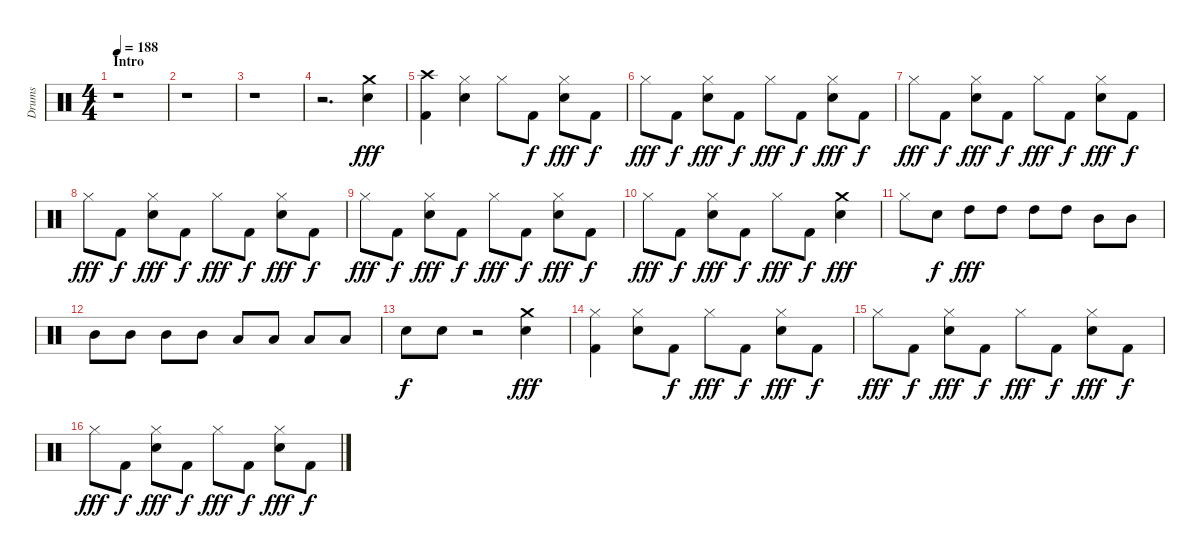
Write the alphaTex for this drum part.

\track ("Drums" "Drums") {instrument percussion}
\staff {score}
\articulation defaults
\ts (4 4)
\section ("" "Intro")
\tempo 188
\clef neutral
\ks c
r.1{dy fff} |
r.1 |
r.1 |
r.2{d} ("Crash medium (hit)" "Snare (hit) 2").4 |
("Crash high (hit)" "Kick (hit) 2").4 ("Hi-Hat (closed)" "Snare (hit) 2").4 "Hi-Hat (closed)".8 "Kick (hit) 2".8{dy f} ("Hi-Hat (closed)" "Snare (hit) 2").8{dy fff} "Kick (hit) 2".8{dy f} |
"Hi-Hat (closed)".8{dy fff} "Kick (hit) 2".8{dy f} ("Hi-Hat (closed)" "Snare (hit) 2").8{dy fff} "Kick (hit) 2".8{dy f} "Hi-Hat (closed)".8{dy fff} "Kick (hit) 2".8{dy f} ("Hi-Hat (closed)" "Snare (hit) 2").8{dy fff} "Kick (hit) 2".8{dy f} |
"Hi-Hat (closed)".8{dy fff} "Kick (hit) 2".8{dy f} ("Hi-Hat (closed)" "Snare (hit) 2").8{dy fff} "Kick (hit) 2".8{dy f} "Hi-Hat (closed)".8{dy fff} "Kick (hit) 2".8{dy f} ("Hi-Hat (closed)" "Snare (hit) 2").8{dy fff} "Kick (hit) 2".8{dy f} |
"Hi-Hat (closed)".8{dy fff} "Kick (hit) 2".8{dy f} ("Hi-Hat (closed)" "Snare (hit) 2").8{dy fff} "Kick (hit) 2".8{dy f} "Hi-Hat (closed)".8{dy fff} "Kick (hit) 2".8{dy f} ("Hi-Hat (closed)" "Snare (hit) 2").8{dy fff} "Kick (hit) 2".8{dy f} |
"Hi-Hat (closed)".8{dy fff} "Kick (hit) 2".8{dy f} ("Hi-Hat (closed)" "Snare (hit) 2").8{dy fff} "Kick (hit) 2".8{dy f} "Hi-Hat (closed)".8{dy fff} "Kick (hit) 2".8{dy f} ("Hi-Hat (closed)" "Snare (hit) 2").8{dy fff} "Kick (hit) 2".8{dy f} |
"Hi-Hat (closed)".8{dy fff} "Kick (hit) 2".8{dy f} ("Hi-Hat (closed)" "Snare (hit) 2").8{dy fff} "Kick (hit) 2".8{dy f} "Hi-Hat (closed)".8{dy fff} "Kick (hit) 2".8{dy f} ("Crash medium (hit)" "Snare (hit) 2").4{dy fff} |
"Hi-Hat (closed)".8 "Snare (hit) 2".8{dy f} "High Tom (hit)".8{dy fff} "High Tom (hit)".8 "High Tom (hit)".8 "High Tom (hit)".8 "Mid Tom (hit)".8 "Mid Tom (hit)".8 |
"Mid Tom (hit)".8 "Mid Tom (hit)".8 "Mid Tom (hit)".8 "Mid Tom (hit)".8 "Low Tom (hit)".8 "Low Tom (hit)".8 "Low Tom (hit)".8 "Low Tom (hit)".8 |
"Snare (hit) 2".8{dy f} "Snare (hit) 2".8 r.2 ("Crash medium (hit)" "Snare (hit) 2").4{dy fff} |
("Hi-Hat (closed)" "Kick (hit) 2").4 ("Hi-Hat (closed)" "Snare (hit) 2").8 "Kick (hit) 2".8{dy f} "Hi-Hat (closed)".8{dy fff} "Kick (hit) 2".8{dy f} ("Hi-Hat (closed)" "Snare (hit) 2").8{dy fff} "Kick (hit) 2".8{dy f} |
"Hi-Hat (closed)".8{dy fff} "Kick (hit) 2".8{dy f} ("Hi-Hat (closed)" "Snare (hit) 2").8{dy fff} "Kick (hit) 2".8{dy f} "Hi-Hat (closed)".8{dy fff} "Kick (hit) 2".8{dy f} ("Hi-Hat (closed)" "Snare (hit) 2").8{dy fff} "Kick (hit) 2".8{dy f} |
"Hi-Hat (closed)".8{dy fff} "Kick (hit) 2".8{dy f} ("Hi-Hat (closed)" "Snare (hit) 2").8{dy fff} "Kick (hit) 2".8{dy f} "Hi-Hat (closed)".8{dy fff} "Kick (hit) 2".8{dy f} ("Hi-Hat (closed)" "Snare (hit) 2").8{dy fff} "Kick (hit) 2".8{dy f}
